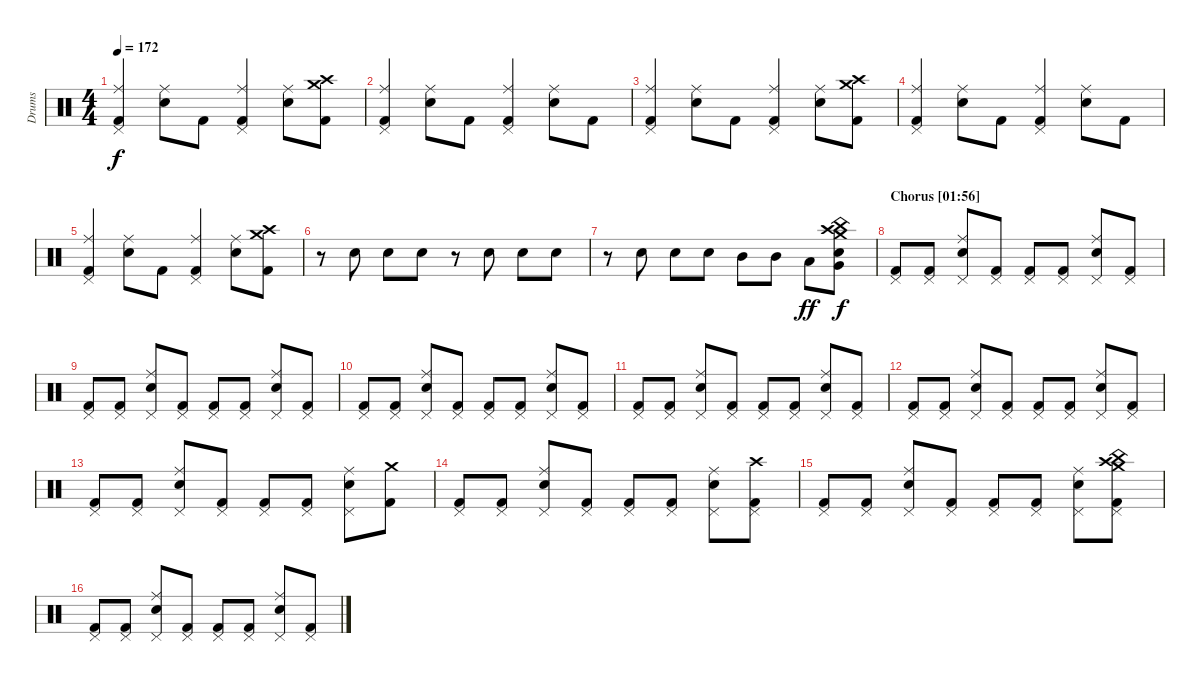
\track ("Drums" "Drums") {instrument percussion}
\staff {score}
\articulation defaults
\ts (4 4)
\tempo 172
\clef neutral
\ks c
("Pedal Hi-Hat (hit)" "Ride (middle)" "Kick (hit) 2").4{dy f} ("Ride (middle)" "Electric Snare (hit)").8 "Kick (hit) 2".8 ("Pedal Hi-Hat (hit)" "Ride (middle)" "Kick (hit) 2").4 ("Ride (middle)" "Electric Snare (hit)").8 ("Crash medium (hit)" "Crash high (hit)" "Kick (hit) 2").8 |
("Pedal Hi-Hat (hit)" "Ride (middle)" "Kick (hit) 2").4 ("Ride (middle)" "Electric Snare (hit)").8 "Kick (hit) 2".8 ("Pedal Hi-Hat (hit)" "Ride (middle)" "Kick (hit) 2").4 ("Ride (middle)" "Electric Snare (hit)").8 "Kick (hit) 2".8 |
("Pedal Hi-Hat (hit)" "Ride (middle)" "Kick (hit) 2").4 ("Ride (middle)" "Electric Snare (hit)").8 "Kick (hit) 2".8 ("Pedal Hi-Hat (hit)" "Ride (middle)" "Kick (hit) 2").4 ("Ride (middle)" "Electric Snare (hit)").8 ("Crash medium (hit)" "Crash high (hit)" "Kick (hit) 2").8 |
("Pedal Hi-Hat (hit)" "Ride (middle)" "Kick (hit) 2").4 ("Ride (middle)" "Electric Snare (hit)").8 "Kick (hit) 2".8 ("Pedal Hi-Hat (hit)" "Ride (middle)" "Kick (hit) 2").4 ("Ride (middle)" "Electric Snare (hit)").8 "Kick (hit) 2".8 |
("Pedal Hi-Hat (hit)" "Ride (middle)" "Kick (hit) 2").4 ("Ride (middle)" "Electric Snare (hit)").8 "Kick (hit) 2".8 ("Pedal Hi-Hat (hit)" "Ride (middle)" "Kick (hit) 2").4 ("Ride (middle)" "Electric Snare (hit)").8 ("Crash medium (hit)" "Crash high (hit)" "Kick (hit) 2").8 |
r.8 "Electric Snare (hit)".8 "Electric Snare (hit)".8 "Electric Snare (hit)".8 r.8 "Electric Snare (hit)".8 "Electric Snare (hit)".8 "Electric Snare (hit)".8 |
r.8 "Electric Snare (hit)".8 "Electric Snare (hit)".8 "Electric Snare (hit)".8 "Mid Tom (hit)".8 "Mid Tom (hit)".8 "Low Tom (hit)".8{dy ff} ("Crash medium (hit)" "Crash high (hit)" "China (hit)" "Snare (hit) 2" "Very Low Tom (hit)").8{dy f} |
\section ("" "Chorus [01:56]")
("Pedal Hi-Hat (hit)" "Kick (hit) 2").8 ("Pedal Hi-Hat (hit)" "Kick (hit) 2").8 ("Pedal Hi-Hat (hit)" "Ride (middle)" "Electric Snare (hit)").8 ("Pedal Hi-Hat (hit)" "Kick (hit) 2").8 ("Pedal Hi-Hat (hit)" "Kick (hit) 2").8 ("Pedal Hi-Hat (hit)" "Kick (hit) 2").8 ("Pedal Hi-Hat (hit)" "Ride (middle)" "Electric Snare (hit)").8 ("Pedal Hi-Hat (hit)" "Kick (hit) 2").8 |
("Pedal Hi-Hat (hit)" "Kick (hit) 2").8 ("Pedal Hi-Hat (hit)" "Kick (hit) 2").8 ("Pedal Hi-Hat (hit)" "Ride (middle)" "Electric Snare (hit)").8 ("Pedal Hi-Hat (hit)" "Kick (hit) 2").8 ("Pedal Hi-Hat (hit)" "Kick (hit) 2").8 ("Pedal Hi-Hat (hit)" "Kick (hit) 2").8 ("Pedal Hi-Hat (hit)" "Ride (middle)" "Electric Snare (hit)").8 ("Pedal Hi-Hat (hit)" "Kick (hit) 2").8 |
("Pedal Hi-Hat (hit)" "Kick (hit) 2").8 ("Pedal Hi-Hat (hit)" "Kick (hit) 2").8 ("Pedal Hi-Hat (hit)" "Ride (middle)" "Electric Snare (hit)").8 ("Pedal Hi-Hat (hit)" "Kick (hit) 2").8 ("Pedal Hi-Hat (hit)" "Kick (hit) 2").8 ("Pedal Hi-Hat (hit)" "Kick (hit) 2").8 ("Pedal Hi-Hat (hit)" "Ride (middle)" "Electric Snare (hit)").8 ("Pedal Hi-Hat (hit)" "Kick (hit) 2").8 |
("Pedal Hi-Hat (hit)" "Kick (hit) 2").8 ("Pedal Hi-Hat (hit)" "Kick (hit) 2").8 ("Pedal Hi-Hat (hit)" "Ride (middle)" "Electric Snare (hit)").8 ("Pedal Hi-Hat (hit)" "Kick (hit) 2").8 ("Pedal Hi-Hat (hit)" "Kick (hit) 2").8 ("Pedal Hi-Hat (hit)" "Kick (hit) 2").8 ("Pedal Hi-Hat (hit)" "Ride (middle)" "Electric Snare (hit)").8 ("Pedal Hi-Hat (hit)" "Kick (hit) 2").8 |
("Pedal Hi-Hat (hit)" "Kick (hit) 2").8 ("Pedal Hi-Hat (hit)" "Kick (hit) 2").8 ("Pedal Hi-Hat (hit)" "Ride (middle)" "Electric Snare (hit)").8 ("Pedal Hi-Hat (hit)" "Kick (hit) 2").8 ("Pedal Hi-Hat (hit)" "Kick (hit) 2").8 ("Pedal Hi-Hat (hit)" "Kick (hit) 2").8 ("Pedal Hi-Hat (hit)" "Ride (middle)" "Electric Snare (hit)").8 ("Pedal Hi-Hat (hit)" "Kick (hit) 2").8 |
("Pedal Hi-Hat (hit)" "Kick (hit) 2").8 ("Pedal Hi-Hat (hit)" "Kick (hit) 2").8 ("Pedal Hi-Hat (hit)" "Ride (middle)" "Electric Snare (hit)").8 ("Pedal Hi-Hat (hit)" "Kick (hit) 2").8 ("Pedal Hi-Hat (hit)" "Kick (hit) 2").8 ("Pedal Hi-Hat (hit)" "Kick (hit) 2").8 ("Pedal Hi-Hat (hit)" "Ride (middle)" "Electric Snare (hit)").8 ("Crash medium (hit)" "Kick (hit) 2").8 |
("Pedal Hi-Hat (hit)" "Kick (hit) 2").8 ("Pedal Hi-Hat (hit)" "Kick (hit) 2").8 ("Pedal Hi-Hat (hit)" "Ride (middle)" "Electric Snare (hit)").8 ("Pedal Hi-Hat (hit)" "Kick (hit) 2").8 ("Pedal Hi-Hat (hit)" "Kick (hit) 2").8 ("Pedal Hi-Hat (hit)" "Kick (hit) 2").8 ("Pedal Hi-Hat (hit)" "Ride (middle)" "Electric Snare (hit)").8 ("Pedal Hi-Hat (hit)" "Crash high (hit)" "Kick (hit) 2").8 |
("Pedal Hi-Hat (hit)" "Kick (hit) 2").8 ("Pedal Hi-Hat (hit)" "Kick (hit) 2").8 ("Pedal Hi-Hat (hit)" "Ride (middle)" "Electric Snare (hit)").8 ("Pedal Hi-Hat (hit)" "Kick (hit) 2").8 ("Pedal Hi-Hat (hit)" "Kick (hit) 2").8 ("Pedal Hi-Hat (hit)" "Kick (hit) 2").8 ("Pedal Hi-Hat (hit)" "Ride (middle)" "Electric Snare (hit)").8 ("Pedal Hi-Hat (hit)" "China (hit)" "Crash medium (hit)" "Crash high (hit)" "Kick (hit) 2").8 |
\section ("" "")
("Pedal Hi-Hat (hit)" "Kick (hit) 2").8 ("Pedal Hi-Hat (hit)" "Kick (hit) 2").8 ("Pedal Hi-Hat (hit)" "Ride (middle)" "Electric Snare (hit)").8 ("Pedal Hi-Hat (hit)" "Kick (hit) 2").8 ("Pedal Hi-Hat (hit)" "Kick (hit) 2").8 ("Pedal Hi-Hat (hit)" "Kick (hit) 2").8 ("Pedal Hi-Hat (hit)" "Ride (middle)" "Electric Snare (hit)").8 ("Pedal Hi-Hat (hit)" "Kick (hit) 2").8
